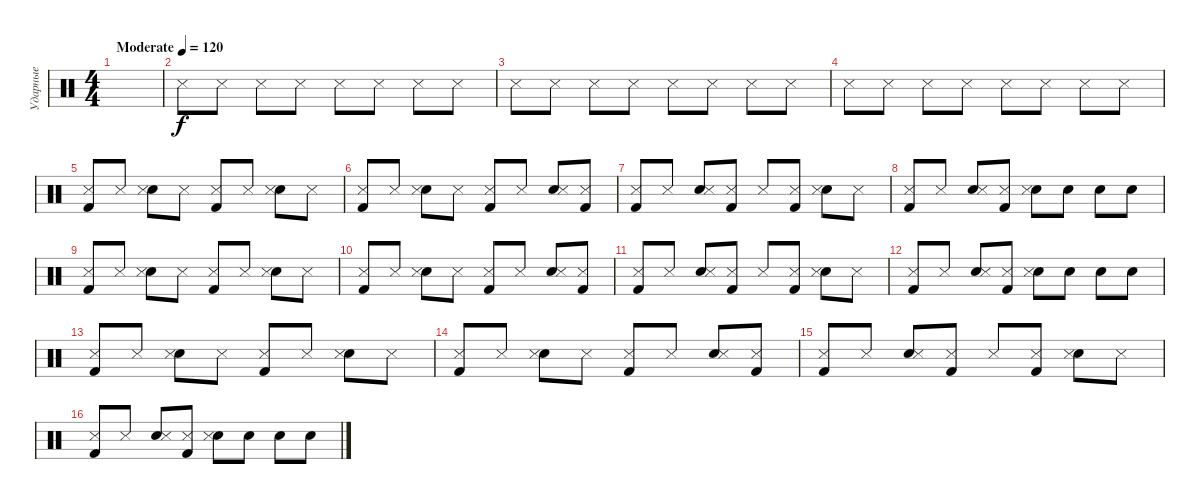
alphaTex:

\track ("Ударные" "Ударные") {instrument percussion}
\staff {score}
\articulation defaults
\ts (4 4)
\tempo (120 "Moderate")
\clef neutral
\ks c
|
"Snare (side stick) 3".8 "Snare (side stick) 3".8 "Snare (side stick) 3".8 "Snare (side stick) 3".8 "Snare (side stick) 3".8 "Snare (side stick) 3".8 "Snare (side stick) 3".8 "Snare (side stick) 3".8 |
"Snare (side stick) 3".8 "Snare (side stick) 3".8 "Snare (side stick) 3".8 "Snare (side stick) 3".8 "Snare (side stick) 3".8 "Snare (side stick) 3".8 "Snare (side stick) 3".8 "Snare (side stick) 3".8 |
"Snare (side stick) 3".8 "Snare (side stick) 3".8 "Snare (side stick) 3".8 "Snare (side stick) 3".8 "Snare (side stick) 3".8 "Snare (side stick) 3".8 "Snare (side stick) 3".8 "Snare (side stick) 3".8 |
("Kick (hit) 2" "Snare (side stick) 3").8 "Snare (side stick) 3".8 ("Electric Snare (hit)" "Snare (side stick) 3").8 "Snare (side stick) 3".8 ("Kick (hit) 2" "Snare (side stick) 3").8 "Snare (side stick) 3".8 ("Electric Snare (hit)" "Snare (side stick) 3").8 "Snare (side stick) 3".8 |
("Kick (hit) 2" "Snare (side stick) 3").8 "Snare (side stick) 3".8 ("Electric Snare (hit)" "Snare (side stick) 3").8 "Snare (side stick) 3".8 ("Kick (hit) 2" "Snare (side stick) 3").8 "Snare (side stick) 3".8 ("Electric Snare (hit)" "Snare (side stick) 3").8 ("Kick (hit) 2" "Snare (side stick) 3").8 |
("Kick (hit) 2" "Snare (side stick) 3").8 "Snare (side stick) 3".8 ("Electric Snare (hit)" "Snare (side stick) 3").8 ("Kick (hit) 2" "Snare (side stick) 3").8 "Snare (side stick) 3".8 ("Kick (hit) 2" "Snare (side stick) 3").8 ("Electric Snare (hit)" "Snare (side stick) 3").8 "Snare (side stick) 3".8 |
("Kick (hit) 2" "Snare (side stick) 3").8 "Snare (side stick) 3".8 ("Electric Snare (hit)" "Snare (side stick) 3").8 ("Kick (hit) 2" "Snare (side stick) 3").8 ("Electric Snare (hit)" "Snare (side stick) 3").8 "Electric Snare (hit)".8 "Electric Snare (hit)".8 "Electric Snare (hit)".8 |
("Kick (hit) 2" "Snare (side stick) 3").8 "Snare (side stick) 3".8 ("Electric Snare (hit)" "Snare (side stick) 3").8 "Snare (side stick) 3".8 ("Kick (hit) 2" "Snare (side stick) 3").8 "Snare (side stick) 3".8 ("Electric Snare (hit)" "Snare (side stick) 3").8 "Snare (side stick) 3".8 |
("Kick (hit) 2" "Snare (side stick) 3").8 "Snare (side stick) 3".8 ("Electric Snare (hit)" "Snare (side stick) 3").8 "Snare (side stick) 3".8 ("Kick (hit) 2" "Snare (side stick) 3").8 "Snare (side stick) 3".8 ("Electric Snare (hit)" "Snare (side stick) 3").8 ("Kick (hit) 2" "Snare (side stick) 3").8 |
("Kick (hit) 2" "Snare (side stick) 3").8 "Snare (side stick) 3".8 ("Electric Snare (hit)" "Snare (side stick) 3").8 ("Kick (hit) 2" "Snare (side stick) 3").8 "Snare (side stick) 3".8 ("Kick (hit) 2" "Snare (side stick) 3").8 ("Electric Snare (hit)" "Snare (side stick) 3").8 "Snare (side stick) 3".8 |
("Kick (hit) 2" "Snare (side stick) 3").8 "Snare (side stick) 3".8 ("Electric Snare (hit)" "Snare (side stick) 3").8 ("Kick (hit) 2" "Snare (side stick) 3").8 ("Electric Snare (hit)" "Snare (side stick) 3").8 "Electric Snare (hit)".8 "Electric Snare (hit)".8 "Electric Snare (hit)".8 |
("Kick (hit) 2" "Snare (side stick) 3").8 "Snare (side stick) 3".8 ("Electric Snare (hit)" "Snare (side stick) 3").8 "Snare (side stick) 3".8 ("Kick (hit) 2" "Snare (side stick) 3").8 "Snare (side stick) 3".8 ("Electric Snare (hit)" "Snare (side stick) 3").8 "Snare (side stick) 3".8 |
("Kick (hit) 2" "Snare (side stick) 3").8 "Snare (side stick) 3".8 ("Electric Snare (hit)" "Snare (side stick) 3").8 "Snare (side stick) 3".8 ("Kick (hit) 2" "Snare (side stick) 3").8 "Snare (side stick) 3".8 ("Electric Snare (hit)" "Snare (side stick) 3").8 ("Kick (hit) 2" "Snare (side stick) 3").8 |
("Kick (hit) 2" "Snare (side stick) 3").8 "Snare (side stick) 3".8 ("Electric Snare (hit)" "Snare (side stick) 3").8 ("Kick (hit) 2" "Snare (side stick) 3").8 "Snare (side stick) 3".8 ("Kick (hit) 2" "Snare (side stick) 3").8 ("Electric Snare (hit)" "Snare (side stick) 3").8 "Snare (side stick) 3".8 |
("Kick (hit) 2" "Snare (side stick) 3").8 "Snare (side stick) 3".8 ("Electric Snare (hit)" "Snare (side stick) 3").8 ("Kick (hit) 2" "Snare (side stick) 3").8 ("Electric Snare (hit)" "Snare (side stick) 3").8 "Electric Snare (hit)".8 "Electric Snare (hit)".8 "Electric Snare (hit)".8
